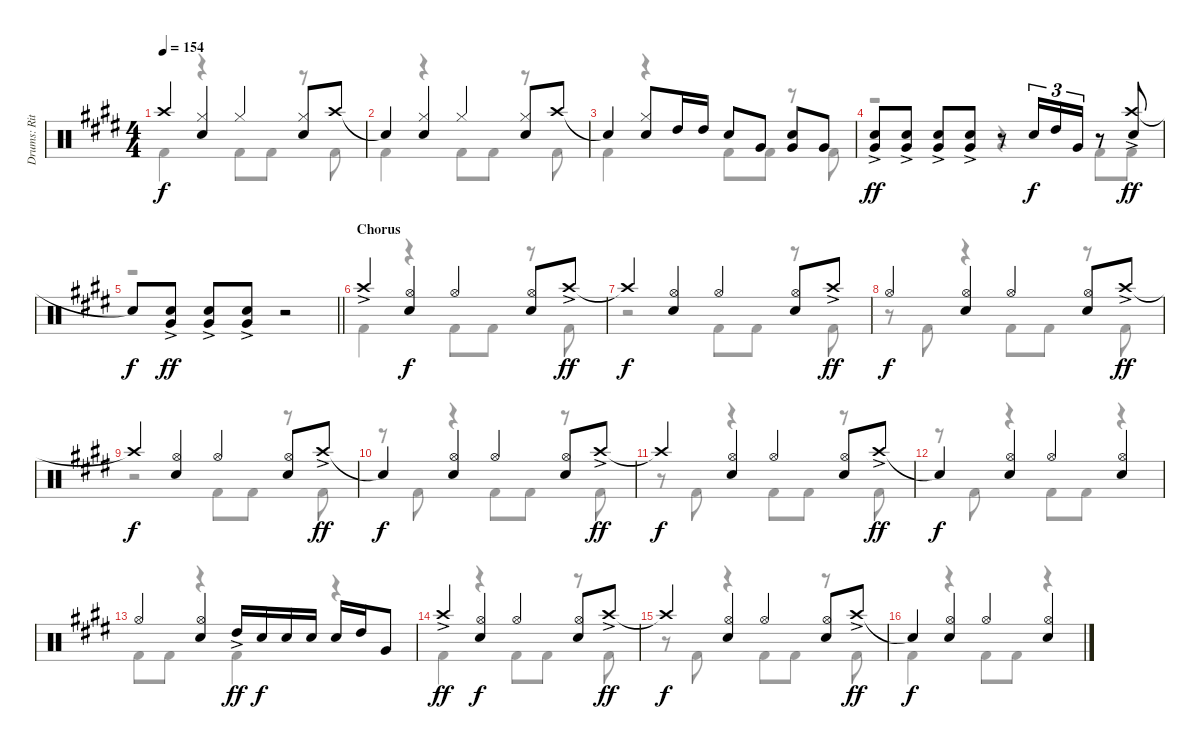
\track ("Drums: Ritsu Tainaka" "Drums: Rit") {instrument percussion}
\staff {score}
\articulation defaults
\voice
\ts (4 4)
\tempo 154
\clef neutral
\ks e "Crash high (hit)"{t}.4{dy f}
("Hi-Hat (closed)" "Electric Snare (hit)").4 "Hi-Hat (closed)".4 ("Hi-Hat (closed)" "Electric Snare (hit)").8 "Crash high (hit)".8 |
"Snare (hit)"{t}.4 ("Hi-Hat (closed)" "Electric Snare (hit)").4 "Hi-Hat (closed)".4 ("Hi-Hat (closed)" "Electric Snare (hit)").8 "Crash high (hit)".8 |
"Snare (hit)"{t}.4 ("Hi-Hat (closed)" "Electric Snare (hit)").8 "High Tom (hit)".16 "High Tom (hit)".16 "Electric Snare (hit)".8 "Very Low Tom (hit)".8 ("Electric Snare (hit)" "Very Low Tom (hit)").8 "Very Low Tom (hit)".8 |
("Electric Snare (hit)"{ac} "Very Low Tom (hit)"{ac}).8{dy ff} ("Electric Snare (hit)"{ac} "Very Low Tom (hit)"{ac}).8 ("Electric Snare (hit)"{ac} "Very Low Tom (hit)"{ac}).8 ("Electric Snare (hit)"{ac} "Very Low Tom (hit)"{ac}).8 r.8 "Electric Snare (hit)".16{tu (3 2) dy f} "High Tom (hit)".16{tu (3 2)} "Very Low Tom (hit)".16{tu (3 2)} r.8 ("Crash high (hit)"{ac} "Electric Snare (hit)").8{dy ff} |
\barLineRight lightlight "Snare (hit)"{t}.8{dy f}
("Electric Snare (hit)"{ac} "Very Low Tom (hit)"{ac}).8{dy ff} ("Electric Snare (hit)"{ac} "Very Low Tom (hit)"{ac}).8 ("Electric Snare (hit)"{ac} "Very Low Tom (hit)"{ac}).8 r.2 |
\section ("" "Chorus")
"Crash high (hit)"{ac}.4 ("Hi-Hat (open)" "Electric Snare (hit)").4{dy f} "Hi-Hat (open)".4 ("Hi-Hat (open)" "Electric Snare (hit)").8 "Crash high (hit)"{ac}.8{dy ff} |
"Crash high (hit)"{t}.4{dy f} ("Hi-Hat (open)" "Electric Snare (hit)").4 "Hi-Hat (open)".4 ("Hi-Hat (open)" "Electric Snare (hit)").8 "Crash high (hit)"{ac}.8{dy ff} |
"Hi-Hat (open)".4{dy f} ("Hi-Hat (open)" "Electric Snare (hit)").4 "Hi-Hat (open)".4 ("Hi-Hat (open)" "Electric Snare (hit)").8 "Crash high (hit)"{ac}.8{dy ff} |
"Crash high (hit)"{t}.4{dy f} ("Hi-Hat (open)" "Electric Snare (hit)").4 "Hi-Hat (open)".4 ("Hi-Hat (open)" "Electric Snare (hit)").8 "Crash high (hit)"{ac}.8{dy ff} |
"Snare (hit)"{t}.4{dy f} ("Hi-Hat (open)" "Electric Snare (hit)").4 "Hi-Hat (open)".4 ("Hi-Hat (open)" "Electric Snare (hit)").8 "Crash high (hit)"{ac}.8{dy ff} |
"Crash high (hit)"{t}.4{dy f} ("Hi-Hat (open)" "Electric Snare (hit)").4 "Hi-Hat (open)".4 ("Hi-Hat (open)" "Electric Snare (hit)").8 "Crash high (hit)"{ac}.8{dy ff} |
"Snare (hit)"{t}.4{dy f} ("Hi-Hat (open)" "Electric Snare (hit)").4 "Hi-Hat (open)".4 ("Hi-Hat (open)" "Electric Snare (hit)").4 |
"Hi-Hat (open)".4 ("Hi-Hat (open)" "Electric Snare (hit)").4 "High Tom (hit)"{ac}.16{dy ff} "Electric Snare (hit)".16{dy f} "Electric Snare (hit)".16 "Electric Snare (hit)".16 "Electric Snare (hit)".16 "High Tom (hit)".16 "Very Low Tom (hit)".8 |
"Crash high (hit)"{ac}.4{dy ff} ("Hi-Hat (open)" "Electric Snare (hit)").4{dy f} "Hi-Hat (open)".4 ("Hi-Hat (open)" "Electric Snare (hit)").8 "Crash high (hit)"{ac}.8{dy ff} |
"Crash high (hit)"{t}.4{dy f} ("Hi-Hat (open)" "Electric Snare (hit)").4 "Hi-Hat (open)".4 ("Hi-Hat (open)" "Electric Snare (hit)").8 "Crash high (hit)"{ac}.8{dy ff} |
"Snare (hit)"{t}.4{dy f} ("Hi-Hat (open)" "Electric Snare (hit)").4 "Hi-Hat (open)".4 ("Hi-Hat (open)" "Electric Snare (hit)").4
\voice
\clef neutral
\ottava regular
\simile none
\ks e "Kick (hit) 2".4{dy f}
r.4 "Kick (hit) 2".8 "Kick (hit) 2".8 r.8 "Kick (hit) 2".8 |
"Kick (hit) 2".4 r.4 "Kick (hit) 2".8 "Kick (hit) 2".8 r.8 "Kick (hit) 2".8 |
"Kick (hit) 2".4 r.4 "Kick (hit) 2".8 "Kick (hit) 2".8 r.8 "Kick (hit) 2".8 |
r.2 r.4 "Kick (hit) 2".8 "Kick (hit) 2".8 |
\barLineRight lightlight
r.1 |
"Kick (hit) 2".4 r.4 "Kick (hit) 2".8 "Kick (hit) 2".8 r.8 "Kick (hit) 2".8 |
r.2 "Kick (hit) 2".8 "Kick (hit) 2".8 r.8 "Kick (hit) 2".8 |
r.8 "Kick (hit) 2".8 r.4 "Kick (hit) 2".8 "Kick (hit) 2".8 r.8 "Kick (hit) 2".8 |
r.2 "Kick (hit) 2".8 "Kick (hit) 2".8 r.8 "Kick (hit) 2".8 |
r.8 "Kick (hit) 2".8 r.4 "Kick (hit) 2".8 "Kick (hit) 2".8 r.8 "Kick (hit) 2".8 |
r.8 "Kick (hit) 2".8 r.4 "Kick (hit) 2".8 "Kick (hit) 2".8 r.8 "Kick (hit) 2".8 |
r.8 "Kick (hit) 2".8 r.4 "Kick (hit) 2".8 "Kick (hit) 2".8 r.4 |
"Kick (hit) 2".8 "Kick (hit) 2".8 r.4 "Kick (hit) 2".4 r.4 |
"Kick (hit) 2".4 r.4 "Kick (hit) 2".8 "Kick (hit) 2".8 r.8 "Kick (hit) 2".8 |
r.8 "Kick (hit) 2".8 r.4 "Kick (hit) 2".8 "Kick (hit) 2".8 r.8 "Kick (hit) 2".8 |
"Kick (hit) 2".4 r.4 "Kick (hit) 2".8 "Kick (hit) 2".8 r.4
